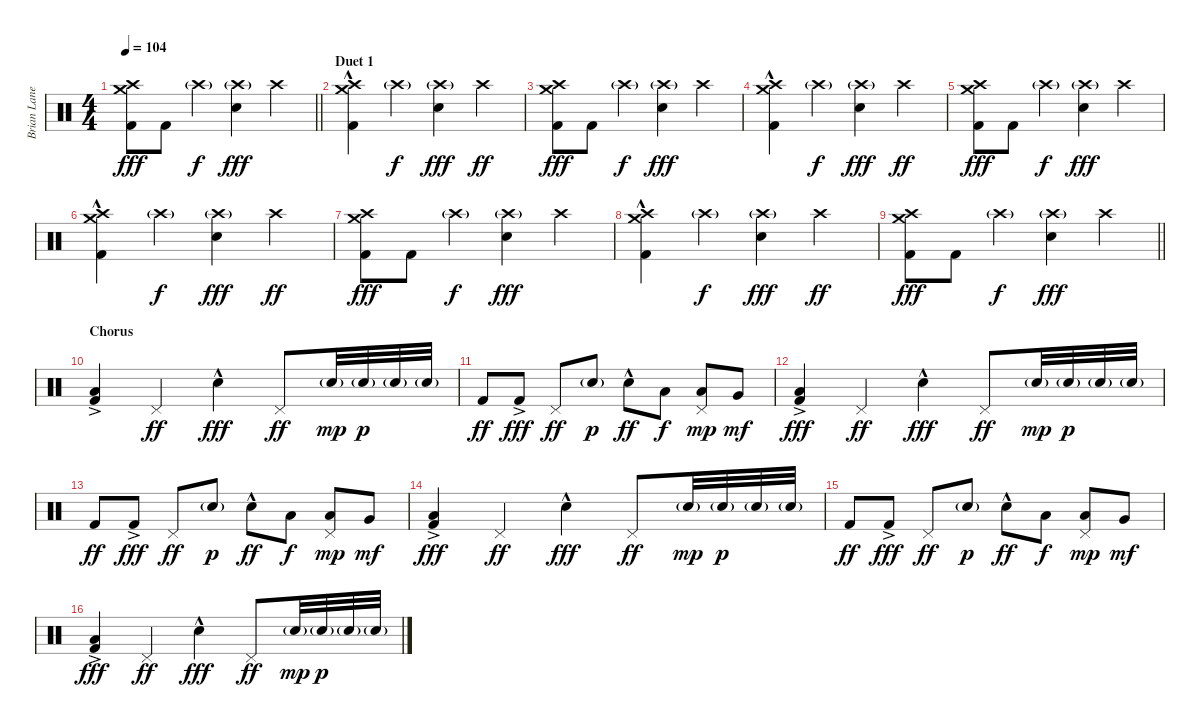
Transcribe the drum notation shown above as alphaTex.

\track ("Brian Lane - Drums" "Brian Lane") {instrument percussion}
\staff {score}
\articulation defaults
\ts (4 4)
\tempo 104
\clef neutral
\barLineRight lightlight
\ks c
("Crash medium (hit)" "Crash high (hit)" "Kick (hit) 2").8{dy fff} "Kick (hit) 2".8 "Crash high (hit)"{g}.4{dy f} ("Crash high (hit)"{g} "Snare (hit) 2").4{dy fff} "Crash high (hit)".4 |
\section ("" "Duet 1")
("Crash high (hit)" "Crash medium (hit)" "Kick (hit) 2"{hac}).4 "Crash high (hit)"{g}.4{dy f} ("Crash high (hit)"{g} "Snare (hit) 2").4{dy fff} "Crash high (hit)".4{dy ff} |
("Crash medium (hit)" "Crash high (hit)" "Kick (hit) 2").8{dy fff} "Kick (hit) 2".8 "Crash high (hit)"{g}.4{dy f} ("Crash high (hit)"{g} "Snare (hit) 2").4{dy fff} "Crash high (hit)".4 |
("Crash high (hit)" "Crash medium (hit)" "Kick (hit) 2"{hac}).4 "Crash high (hit)"{g}.4{dy f} ("Crash high (hit)"{g} "Snare (hit) 2").4{dy fff} "Crash high (hit)".4{dy ff} |
("Crash medium (hit)" "Crash high (hit)" "Kick (hit) 2").8{dy fff} "Kick (hit) 2".8 "Crash high (hit)"{g}.4{dy f} ("Crash high (hit)"{g} "Snare (hit) 2").4{dy fff} "Crash high (hit)".4 |
("Crash high (hit)" "Crash medium (hit)" "Kick (hit) 2"{hac}).4 "Crash high (hit)"{g}.4{dy f} ("Crash high (hit)"{g} "Snare (hit) 2").4{dy fff} "Crash high (hit)".4{dy ff} |
("Crash medium (hit)" "Crash high (hit)" "Kick (hit) 2").8{dy fff} "Kick (hit) 2".8 "Crash high (hit)"{g}.4{dy f} ("Crash high (hit)"{g} "Snare (hit) 2").4{dy fff} "Crash high (hit)".4 |
("Crash high (hit)" "Crash medium (hit)" "Kick (hit) 2"{hac}).4 "Crash high (hit)"{g}.4{dy f} ("Crash high (hit)"{g} "Snare (hit) 2").4{dy fff} "Crash high (hit)".4{dy ff} |
\barLineRight lightlight
("Crash medium (hit)" "Crash high (hit)" "Kick (hit) 2").8{dy fff} "Kick (hit) 2".8 "Crash high (hit)"{g}.4{dy f} ("Crash high (hit)"{g} "Snare (hit) 2").4{dy fff} "Crash high (hit)".4 |
\section ("" "Chorus")
("Low Floor Tom (hit)" "Kick (hit) 2"{ac}).4 "Pedal Hi-Hat (hit)".4{dy ff} "Snare (hit) 2"{hac}.4{dy fff} "Pedal Hi-Hat (hit)".8{dy ff} "Snare (hit) 2"{g}.32{dy mp} "Snare (hit) 2"{g}.32{dy p} "Snare (hit) 2"{g}.32 "Snare (hit) 2"{g}.32 |
"Kick (hit) 2".8{dy ff} "Kick (hit) 2"{ac}.8{dy fff} "Pedal Hi-Hat (hit)".8{dy ff} "Snare (hit) 2"{g}.8{dy p} "Snare (hit) 2"{hac}.8{dy ff} "Low Tom (hit)".8{dy f} ("Pedal Hi-Hat (hit)" "Low Tom (hit)").8{dy mp} "Very Low Tom (hit)".8{dy mf} |
("Low Floor Tom (hit)" "Kick (hit) 2"{ac}).4{dy fff} "Pedal Hi-Hat (hit)".4{dy ff} "Snare (hit) 2"{hac}.4{dy fff} "Pedal Hi-Hat (hit)".8{dy ff} "Snare (hit) 2"{g}.32{dy mp} "Snare (hit) 2"{g}.32{dy p} "Snare (hit) 2"{g}.32 "Snare (hit) 2"{g}.32 |
"Kick (hit) 2".8{dy ff} "Kick (hit) 2"{ac}.8{dy fff} "Pedal Hi-Hat (hit)".8{dy ff} "Snare (hit) 2"{g}.8{dy p} "Snare (hit) 2"{hac}.8{dy ff} "Low Tom (hit)".8{dy f} ("Pedal Hi-Hat (hit)" "Low Tom (hit)").8{dy mp} "Very Low Tom (hit)".8{dy mf} |
("Low Floor Tom (hit)" "Kick (hit) 2"{ac}).4{dy fff} "Pedal Hi-Hat (hit)".4{dy ff} "Snare (hit) 2"{hac}.4{dy fff} "Pedal Hi-Hat (hit)".8{dy ff} "Snare (hit) 2"{g}.32{dy mp} "Snare (hit) 2"{g}.32{dy p} "Snare (hit) 2"{g}.32 "Snare (hit) 2"{g}.32 |
"Kick (hit) 2".8{dy ff} "Kick (hit) 2"{ac}.8{dy fff} "Pedal Hi-Hat (hit)".8{dy ff} "Snare (hit) 2"{g}.8{dy p} "Snare (hit) 2"{hac}.8{dy ff} "Low Tom (hit)".8{dy f} ("Pedal Hi-Hat (hit)" "Low Tom (hit)").8{dy mp} "Very Low Tom (hit)".8{dy mf} |
("Low Floor Tom (hit)" "Kick (hit) 2"{ac}).4{dy fff} "Pedal Hi-Hat (hit)".4{dy ff} "Snare (hit) 2"{hac}.4{dy fff} "Pedal Hi-Hat (hit)".8{dy ff} "Snare (hit) 2"{g}.32{dy mp} "Snare (hit) 2"{g}.32{dy p} "Snare (hit) 2"{g}.32 "Snare (hit) 2"{g}.32
